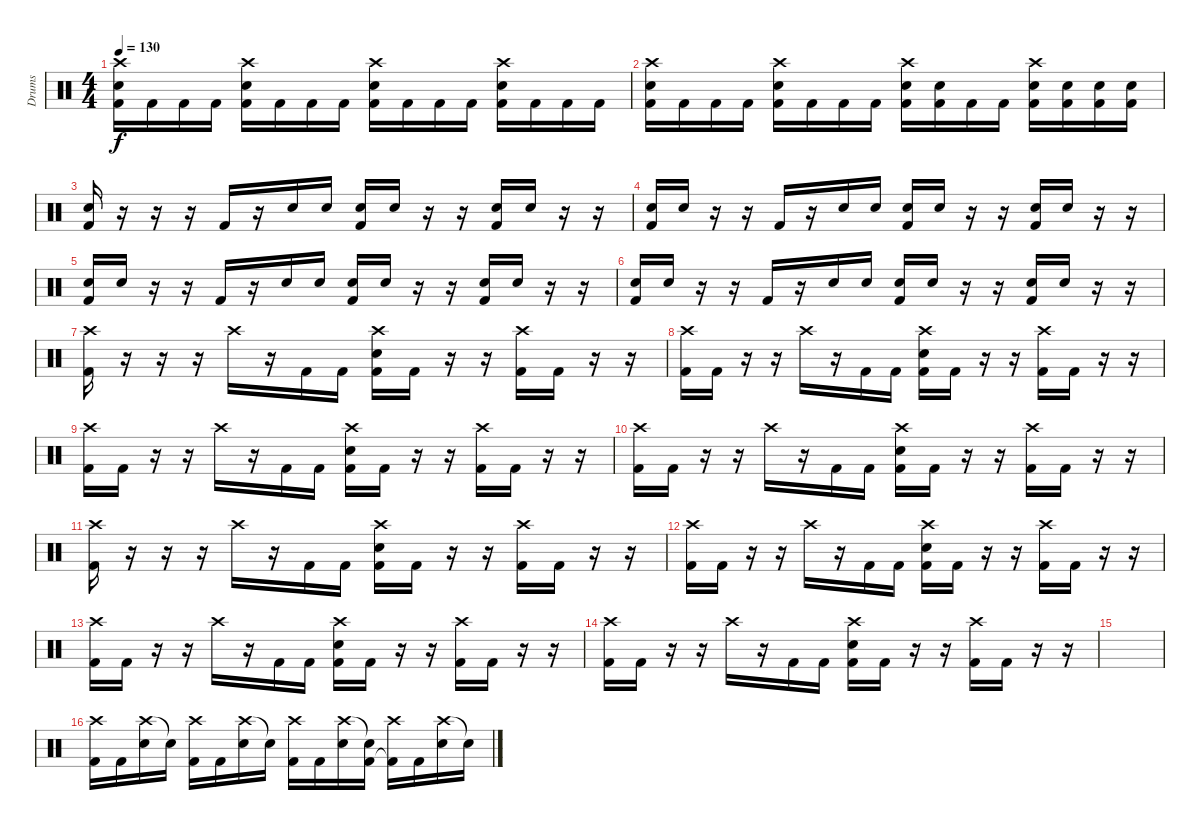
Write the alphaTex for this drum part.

\track ("Drums" "Drums") {instrument percussion}
\staff {score}
\articulation defaults
\ts (4 4)
\tempo 130
\clef neutral
\ks c
("Crash high (hit)" "Electric Snare (hit)" "Kick (hit) 2").16{dy f} "Kick (hit) 2".16 "Kick (hit) 2".16 "Kick (hit) 2".16 ("Crash high (hit)" "Electric Snare (hit)" "Kick (hit) 2").16 "Kick (hit) 2".16 "Kick (hit) 2".16 "Kick (hit) 2".16 ("Crash high (hit)" "Electric Snare (hit)" "Kick (hit) 2").16 "Kick (hit) 2".16 "Kick (hit) 2".16 "Kick (hit) 2".16 ("Crash high (hit)" "Electric Snare (hit)" "Kick (hit) 2").16 "Kick (hit) 2".16 "Kick (hit) 2".16 "Kick (hit) 2".16 |
("Crash high (hit)" "Electric Snare (hit)" "Kick (hit) 2").16 "Kick (hit) 2".16 "Kick (hit) 2".16 "Kick (hit) 2".16 ("Crash high (hit)" "Electric Snare (hit)" "Kick (hit) 2").16 "Kick (hit) 2".16 "Kick (hit) 2".16 "Kick (hit) 2".16 ("Crash high (hit)" "Electric Snare (hit)" "Kick (hit) 2").16 ("Electric Snare (hit)" "Kick (hit) 2").16 "Kick (hit) 2".16 "Kick (hit) 2".16 ("Crash high (hit)" "Electric Snare (hit)" "Kick (hit) 2").16 ("Electric Snare (hit)" "Kick (hit) 2").16 ("Electric Snare (hit)" "Kick (hit) 2").16 ("Electric Snare (hit)" "Kick (hit) 2").16 |
("Electric Snare (hit)" "Kick (hit) 2").16 r.16 r.16 r.16 "Kick (hit) 2".16 r.16 "Electric Snare (hit)".16 "Electric Snare (hit)".16 ("Electric Snare (hit)" "Kick (hit) 2").16 "Electric Snare (hit)".16 r.16 r.16 ("Electric Snare (hit)" "Kick (hit) 2").16 "Electric Snare (hit)".16 r.16 r.16 |
("Electric Snare (hit)" "Kick (hit) 2").16 "Electric Snare (hit)".16 r.16 r.16 "Kick (hit) 2".16 r.16 "Electric Snare (hit)".16 "Electric Snare (hit)".16 ("Electric Snare (hit)" "Kick (hit) 2").16 "Electric Snare (hit)".16 r.16 r.16 ("Electric Snare (hit)" "Kick (hit) 2").16 "Electric Snare (hit)".16 r.16 r.16 |
("Electric Snare (hit)" "Kick (hit) 2").16 "Electric Snare (hit)".16 r.16 r.16 "Kick (hit) 2".16 r.16 "Electric Snare (hit)".16 "Electric Snare (hit)".16 ("Electric Snare (hit)" "Kick (hit) 2").16 "Electric Snare (hit)".16 r.16 r.16 ("Electric Snare (hit)" "Kick (hit) 2").16 "Electric Snare (hit)".16 r.16 r.16 |
("Electric Snare (hit)" "Kick (hit) 2").16 "Electric Snare (hit)".16 r.16 r.16 "Kick (hit) 2".16 r.16 "Electric Snare (hit)".16 "Electric Snare (hit)".16 ("Electric Snare (hit)" "Kick (hit) 2").16 "Electric Snare (hit)".16 r.16 r.16 ("Electric Snare (hit)" "Kick (hit) 2").16 "Electric Snare (hit)".16 r.16 r.16 |
("Crash high (hit)" "Kick (hit) 2").16 r.16 r.16 r.16 "Crash high (hit)".16 r.16 "Kick (hit) 2".16 "Kick (hit) 2".16 ("Crash high (hit)" "Electric Snare (hit)" "Kick (hit) 2").16 "Kick (hit) 2".16 r.16 r.16 ("Crash high (hit)" "Kick (hit) 2").16 "Kick (hit) 2".16 r.16 r.16 |
("Crash high (hit)" "Kick (hit) 2").16 "Kick (hit) 2".16 r.16 r.16 "Crash high (hit)".16 r.16 "Kick (hit) 2".16 "Kick (hit) 2".16 ("Crash high (hit)" "Electric Snare (hit)" "Kick (hit) 2").16 "Kick (hit) 2".16 r.16 r.16 ("Crash high (hit)" "Kick (hit) 2").16 "Kick (hit) 2".16 r.16 r.16 |
("Crash high (hit)" "Kick (hit) 2").16 "Kick (hit) 2".16 r.16 r.16 "Crash high (hit)".16 r.16 "Kick (hit) 2".16 "Kick (hit) 2".16 ("Crash high (hit)" "Electric Snare (hit)" "Kick (hit) 2").16 "Kick (hit) 2".16 r.16 r.16 ("Crash high (hit)" "Kick (hit) 2").16 "Kick (hit) 2".16 r.16 r.16 |
("Crash high (hit)" "Kick (hit) 2").16 "Kick (hit) 2".16 r.16 r.16 "Crash high (hit)".16 r.16 "Kick (hit) 2".16 "Kick (hit) 2".16 ("Crash high (hit)" "Electric Snare (hit)" "Kick (hit) 2").16 "Kick (hit) 2".16 r.16 r.16 ("Crash high (hit)" "Kick (hit) 2").16 "Kick (hit) 2".16 r.16 r.16 |
("Crash high (hit)" "Kick (hit) 2").16 r.16 r.16 r.16 "Crash high (hit)".16 r.16 "Kick (hit) 2".16 "Kick (hit) 2".16 ("Crash high (hit)" "Electric Snare (hit)" "Kick (hit) 2").16 "Kick (hit) 2".16 r.16 r.16 ("Crash high (hit)" "Kick (hit) 2").16 "Kick (hit) 2".16 r.16 r.16 |
("Crash high (hit)" "Kick (hit) 2").16 "Kick (hit) 2".16 r.16 r.16 "Crash high (hit)".16 r.16 "Kick (hit) 2".16 "Kick (hit) 2".16 ("Crash high (hit)" "Electric Snare (hit)" "Kick (hit) 2").16 "Kick (hit) 2".16 r.16 r.16 ("Crash high (hit)" "Kick (hit) 2").16 "Kick (hit) 2".16 r.16 r.16 |
("Crash high (hit)" "Kick (hit) 2").16 "Kick (hit) 2".16 r.16 r.16 "Crash high (hit)".16 r.16 "Kick (hit) 2".16 "Kick (hit) 2".16 ("Crash high (hit)" "Electric Snare (hit)" "Kick (hit) 2").16 "Kick (hit) 2".16 r.16 r.16 ("Crash high (hit)" "Kick (hit) 2").16 "Kick (hit) 2".16 r.16 r.16 |
("Crash high (hit)" "Kick (hit) 2").16 "Kick (hit) 2".16 r.16 r.16 "Crash high (hit)".16 r.16 "Kick (hit) 2".16 "Kick (hit) 2".16 ("Crash high (hit)" "Electric Snare (hit)" "Kick (hit) 2").16 "Kick (hit) 2".16 r.16 r.16 ("Crash high (hit)" "Kick (hit) 2").16 "Kick (hit) 2".16 r.16 r.16 |
|
("Crash high (hit)" "Kick (hit) 2").16 "Kick (hit) 2".16 ("Crash high (hit)" "Electric Snare (hit)").16 "Snare (hit)"{t}.16 ("Crash high (hit)" "Kick (hit) 2").16 "Kick (hit) 2".16 ("Crash high (hit)" "Electric Snare (hit)").16 "Snare (hit)"{t}.16 ("Crash high (hit)" "Kick (hit) 2").16 "Kick (hit) 2".16 ("Crash high (hit)" "Electric Snare (hit)").16 ("Snare (hit)"{t} "Kick (hit) 2").16 ("Crash high (hit)" "Kick (hit) 2"{t}).16 "Kick (hit) 2".16 ("Crash high (hit)" "Electric Snare (hit)").16 "Snare (hit)"{t}.16
